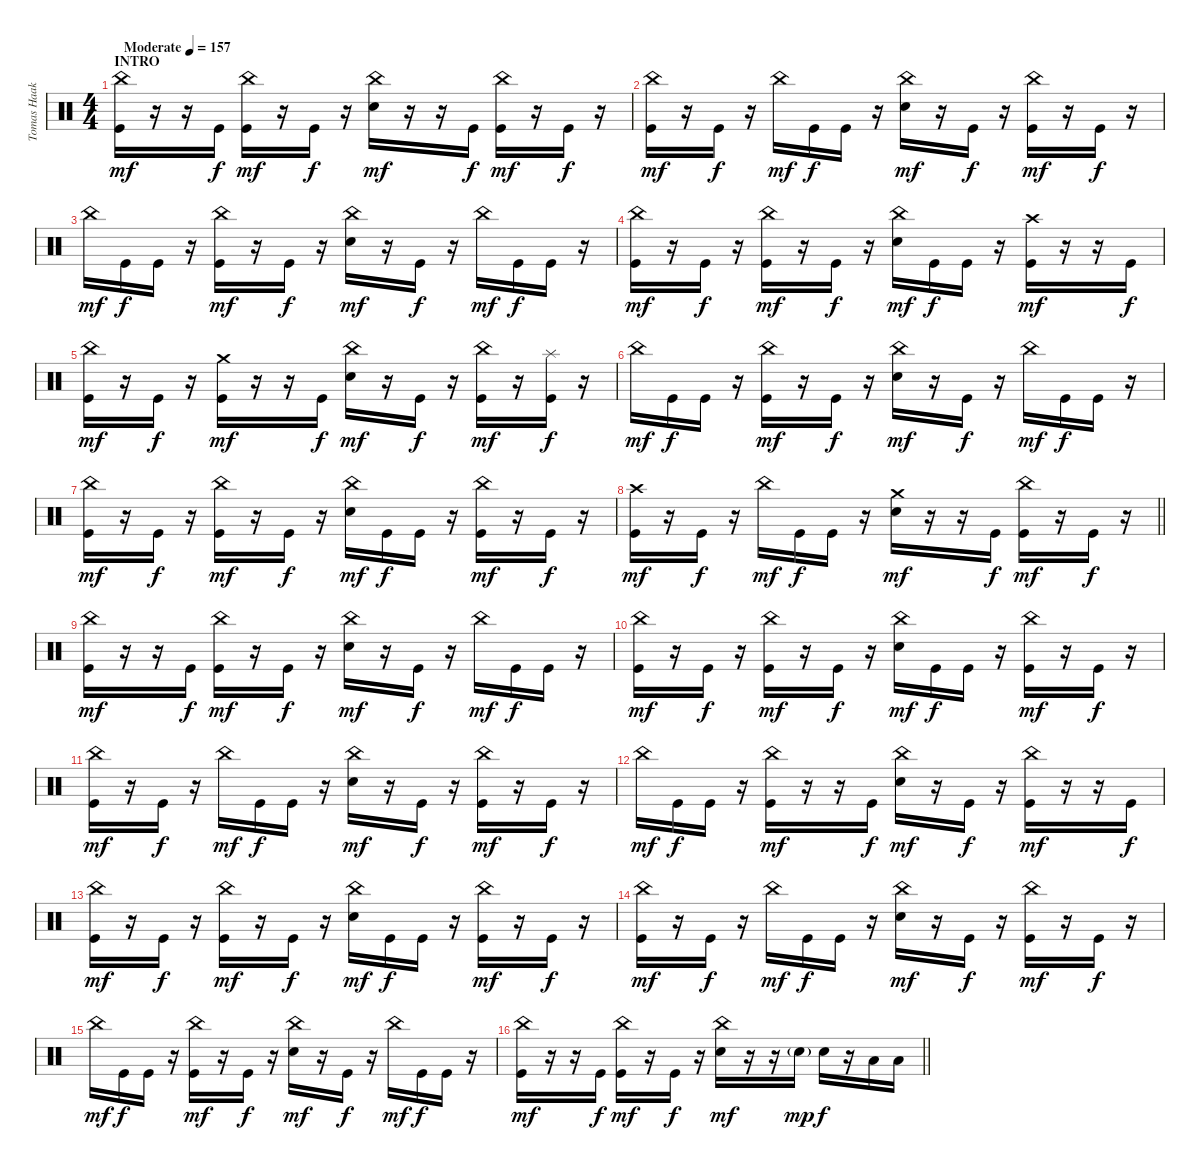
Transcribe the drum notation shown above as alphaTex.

\track ("Tomas Haake (Drums)" "Tomas Haak") {instrument percussion}
\staff {score}
\articulation defaults
\ts (4 4)
\section ("" "INTRO")
\tempo (157 "Moderate")
\clef neutral
\ks c
("China (hit)" "Kick (hit)").16{dy mf} r.16 r.16 "Kick (hit)".16{dy f} ("China (hit)" "Kick (hit)").16{dy mf} r.16 "Kick (hit)".16{dy f} r.16 ("China (hit)" "Electric Snare (hit)").16{dy mf} r.16 r.16 "Kick (hit)".16{dy f} ("China (hit)" "Kick (hit)").16{dy mf} r.16 "Kick (hit)".16{dy f} r.16 |
("China (hit)" "Kick (hit)").16{dy mf} r.16 "Kick (hit)".16{dy f} r.16 "China (hit)".16{dy mf} "Kick (hit)".16{dy f} "Kick (hit)".16 r.16 ("China (hit)" "Electric Snare (hit)").16{dy mf} r.16 "Kick (hit)".16{dy f} r.16 ("China (hit)" "Kick (hit)").16{dy mf} r.16 "Kick (hit)".16{dy f} r.16 |
"China (hit)".16{dy mf} "Kick (hit)".16{dy f} "Kick (hit)".16 r.16 ("China (hit)" "Kick (hit)").16{dy mf} r.16 "Kick (hit)".16{dy f} r.16 ("China (hit)" "Electric Snare (hit)").16{dy mf} r.16 "Kick (hit)".16{dy f} r.16 "China (hit)".16{dy mf} "Kick (hit)".16{dy f} "Kick (hit)".16 r.16 |
("China (hit)" "Kick (hit)").16{dy mf} r.16 "Kick (hit)".16{dy f} r.16 ("China (hit)" "Kick (hit)").16{dy mf} r.16 "Kick (hit)".16{dy f} r.16 ("China (hit)" "Electric Snare (hit)").16{dy mf} "Kick (hit)".16{dy f} "Kick (hit)".16 r.16 ("Crash high (hit)" "Kick (hit)").16{dy mf} r.16 r.16 "Kick (hit)".16{dy f} |
("China (hit)" "Kick (hit)").16{dy mf} r.16 "Kick (hit)".16{dy f} r.16 ("Crash medium (hit)" "Kick (hit)").16{dy mf} r.16 r.16 "Kick (hit)".16{dy f} ("China (hit)" "Electric Snare (hit)").16{dy mf} r.16 "Kick (hit)".16{dy f} r.16 ("China (hit)" "Kick (hit)").16{dy mf} r.16 ("Splash (hit)" "Kick (hit)").16{dy f} r.16 |
"China (hit)".16{dy mf} "Kick (hit)".16{dy f} "Kick (hit)".16 r.16 ("China (hit)" "Kick (hit)").16{dy mf} r.16 "Kick (hit)".16{dy f} r.16 ("China (hit)" "Electric Snare (hit)").16{dy mf} r.16 "Kick (hit)".16{dy f} r.16 "China (hit)".16{dy mf} "Kick (hit)".16{dy f} "Kick (hit)".16 r.16 |
("China (hit)" "Kick (hit)").16{dy mf} r.16 "Kick (hit)".16{dy f} r.16 ("China (hit)" "Kick (hit)").16{dy mf} r.16 "Kick (hit)".16{dy f} r.16 ("China (hit)" "Electric Snare (hit)").16{dy mf} "Kick (hit)".16{dy f} "Kick (hit)".16 r.16 ("China (hit)" "Kick (hit)").16{dy mf} r.16 "Kick (hit)".16{dy f} r.16 |
\barLineRight lightlight
("Crash high (hit)" "Kick (hit)").16{dy mf} r.16 "Kick (hit)".16{dy f} r.16 "China (hit)".16{dy mf} "Kick (hit)".16{dy f} "Kick (hit)".16 r.16 ("Crash medium (hit)" "Electric Snare (hit)").16{dy mf} r.16 r.16 "Kick (hit)".16{dy f} ("China (hit)" "Kick (hit)").16{dy mf} r.16 "Kick (hit)".16{dy f} r.16 |
("China (hit)" "Kick (hit)").16{dy mf} r.16 r.16 "Kick (hit)".16{dy f} ("China (hit)" "Kick (hit)").16{dy mf} r.16 "Kick (hit)".16{dy f} r.16 ("China (hit)" "Electric Snare (hit)").16{dy mf} r.16 "Kick (hit)".16{dy f} r.16 "China (hit)".16{dy mf} "Kick (hit)".16{dy f} "Kick (hit)".16 r.16 |
("China (hit)" "Kick (hit)").16{dy mf} r.16 "Kick (hit)".16{dy f} r.16 ("China (hit)" "Kick (hit)").16{dy mf} r.16 "Kick (hit)".16{dy f} r.16 ("China (hit)" "Electric Snare (hit)").16{dy mf} "Kick (hit)".16{dy f} "Kick (hit)".16 r.16 ("China (hit)" "Kick (hit)").16{dy mf} r.16 "Kick (hit)".16{dy f} r.16 |
("China (hit)" "Kick (hit)").16{dy mf} r.16 "Kick (hit)".16{dy f} r.16 "China (hit)".16{dy mf} "Kick (hit)".16{dy f} "Kick (hit)".16 r.16 ("China (hit)" "Electric Snare (hit)").16{dy mf} r.16 "Kick (hit)".16{dy f} r.16 ("China (hit)" "Kick (hit)").16{dy mf} r.16 "Kick (hit)".16{dy f} r.16 |
"China (hit)".16{dy mf} "Kick (hit)".16{dy f} "Kick (hit)".16 r.16 ("China (hit)" "Kick (hit)").16{dy mf} r.16 r.16 "Kick (hit)".16{dy f} ("China (hit)" "Electric Snare (hit)").16{dy mf} r.16 "Kick (hit)".16{dy f} r.16 ("China (hit)" "Kick (hit)").16{dy mf} r.16 r.16 "Kick (hit)".16{dy f} |
("China (hit)" "Kick (hit)").16{dy mf} r.16 "Kick (hit)".16{dy f} r.16 ("China (hit)" "Kick (hit)").16{dy mf} r.16 "Kick (hit)".16{dy f} r.16 ("China (hit)" "Electric Snare (hit)").16{dy mf} "Kick (hit)".16{dy f} "Kick (hit)".16 r.16 ("China (hit)" "Kick (hit)").16{dy mf} r.16 "Kick (hit)".16{dy f} r.16 |
("China (hit)" "Kick (hit)").16{dy mf} r.16 "Kick (hit)".16{dy f} r.16 "China (hit)".16{dy mf} "Kick (hit)".16{dy f} "Kick (hit)".16 r.16 ("China (hit)" "Electric Snare (hit)").16{dy mf} r.16 "Kick (hit)".16{dy f} r.16 ("China (hit)" "Kick (hit)").16{dy mf} r.16 "Kick (hit)".16{dy f} r.16 |
"China (hit)".16{dy mf} "Kick (hit)".16{dy f} "Kick (hit)".16 r.16 ("China (hit)" "Kick (hit)").16{dy mf} r.16 "Kick (hit)".16{dy f} r.16 ("China (hit)" "Electric Snare (hit)").16{dy mf} r.16 "Kick (hit)".16{dy f} r.16 "China (hit)".16{dy mf} "Kick (hit)".16{dy f} "Kick (hit)".16 r.16 |
\barLineRight lightlight
("China (hit)" "Kick (hit)").16{dy mf} r.16 r.16 "Kick (hit)".16{dy f} ("China (hit)" "Kick (hit)").16{dy mf} r.16 "Kick (hit)".16{dy f} r.16 ("China (hit)" "Electric Snare (hit)").16{dy mf} r.16 r.16 "Electric Snare (hit)"{g}.16{dy mp} "Electric Snare (hit)".16{dy f} r.16 "Low Floor Tom (hit)".16 "Low Floor Tom (hit)".16
